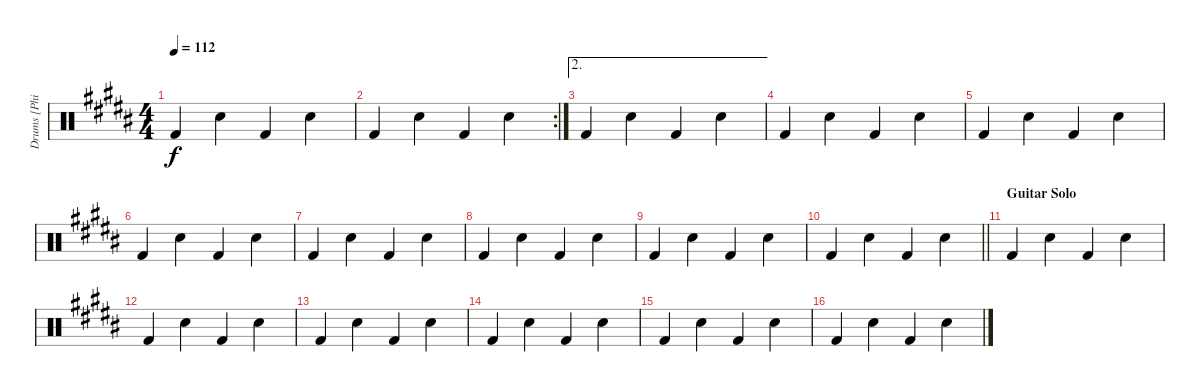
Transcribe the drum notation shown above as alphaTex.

\track ("Drums [Phill]" "Drums [Phi") {instrument percussion}
\staff {score}
\articulation defaults
\ts (4 4)
\tempo 112
\clef neutral
\ks b "Kick (hit) 2".4{dy f} "Snare (hit) 2".4 "Kick (hit) 2".4 "Snare (hit) 2".4
|
\rc 2 "Kick (hit) 2".4 "Snare (hit) 2".4 "Kick (hit) 2".4 "Snare (hit) 2".4
|
\ae 2 "Kick (hit) 2".4 "Snare (hit) 2".4 "Kick (hit) 2".4 "Snare (hit) 2".4
|
"Kick (hit) 2".4 "Snare (hit) 2".4 "Kick (hit) 2".4 "Snare (hit) 2".4 |
"Kick (hit) 2".4 "Snare (hit) 2".4 "Kick (hit) 2".4 "Snare (hit) 2".4 |
"Kick (hit) 2".4 "Snare (hit) 2".4 "Kick (hit) 2".4 "Snare (hit) 2".4 |
"Kick (hit) 2".4 "Snare (hit) 2".4 "Kick (hit) 2".4 "Snare (hit) 2".4 |
"Kick (hit) 2".4 "Snare (hit) 2".4 "Kick (hit) 2".4 "Snare (hit) 2".4 |
"Kick (hit) 2".4 "Snare (hit) 2".4 "Kick (hit) 2".4 "Snare (hit) 2".4 |
\barLineRight lightlight "Kick (hit) 2".4 "Snare (hit) 2".4 "Kick (hit) 2".4 "Snare (hit) 2".4
|
\section ("" "Guitar Solo")
"Kick (hit) 2".4 "Snare (hit) 2".4 "Kick (hit) 2".4 "Snare (hit) 2".4 |
"Kick (hit) 2".4 "Snare (hit) 2".4 "Kick (hit) 2".4 "Snare (hit) 2".4 |
"Kick (hit) 2".4 "Snare (hit) 2".4 "Kick (hit) 2".4 "Snare (hit) 2".4 |
"Kick (hit) 2".4 "Snare (hit) 2".4 "Kick (hit) 2".4 "Snare (hit) 2".4 |
"Kick (hit) 2".4 "Snare (hit) 2".4 "Kick (hit) 2".4 "Snare (hit) 2".4 |
"Kick (hit) 2".4 "Snare (hit) 2".4 "Kick (hit) 2".4 "Snare (hit) 2".4
